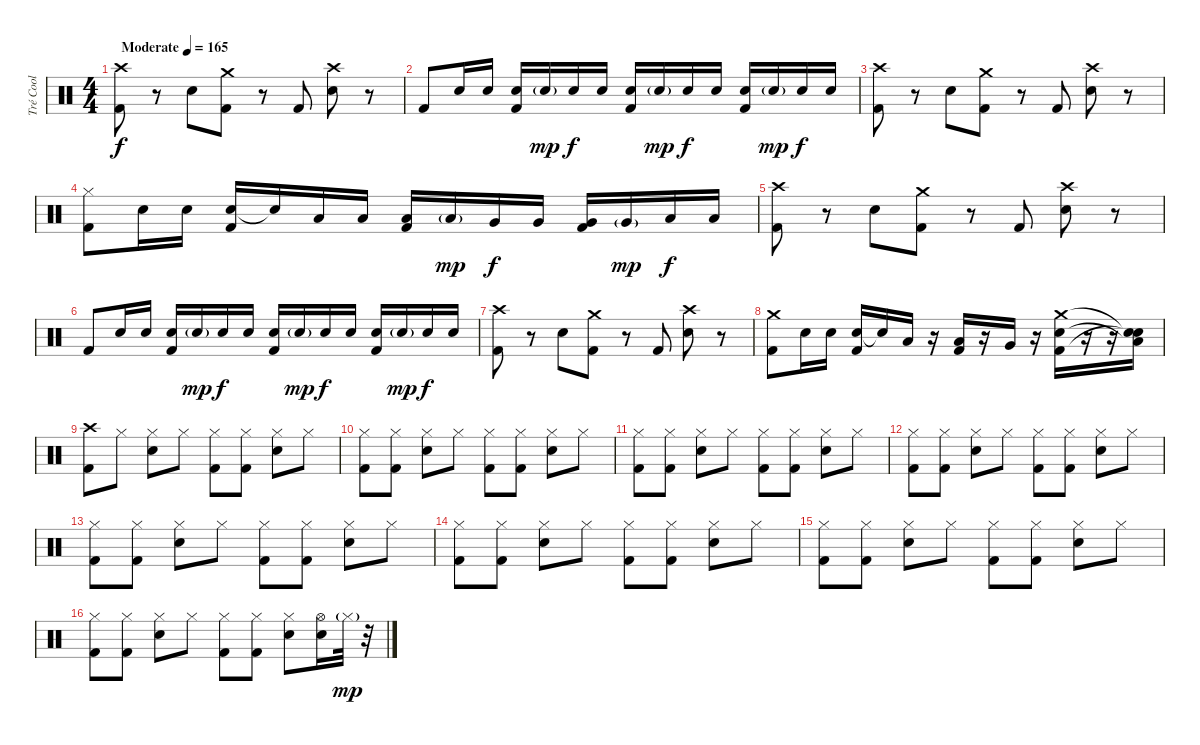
\track ("Tré Cool" "Tré Cool") {instrument percussion}
\staff {score}
\articulation defaults
\ts (4 4)
\tempo (165 "Moderate")
\clef neutral
\ks c
("Crash high (hit)" "Kick (hit) 2").8{dy f} r.8 "Electric Snare (hit)".8 ("Crash medium (hit)" "Kick (hit) 2").8 r.8 "Kick (hit) 2".8 ("Crash high (hit)" "Electric Snare (hit)").8 r.8 |
"Kick (hit) 2".8 "Electric Snare (hit)".16 "Electric Snare (hit)".16 ("Electric Snare (hit)" "Kick (hit) 2").16 "Electric Snare (hit)"{g}.16{dy mp} "Electric Snare (hit)".16{dy f} "Electric Snare (hit)".16 ("Electric Snare (hit)" "Kick (hit) 2").16 "Electric Snare (hit)"{g}.16{dy mp} "Electric Snare (hit)".16{dy f} "Electric Snare (hit)".16 ("Electric Snare (hit)" "Kick (hit) 2").16 "Electric Snare (hit)"{g}.16{dy mp} "Electric Snare (hit)".16{dy f} "Electric Snare (hit)".16 |
("Crash high (hit)" "Kick (hit) 2").8 r.8 "Electric Snare (hit)".8 ("Crash medium (hit)" "Kick (hit) 2").8 r.8 "Kick (hit) 2".8 ("Crash high (hit)" "Electric Snare (hit)").8 r.8 |
("Hi-Hat (closed)" "Kick (hit) 2").8 "Electric Snare (hit)".16 "Electric Snare (hit)".16 ("Electric Snare (hit)" "Kick (hit) 2").16 "Electric Snare (hit)"{t}.16 "Low Tom (hit)".16 "Low Tom (hit)".16 ("Low Tom (hit)" "Kick (hit) 2").16 "Low Tom (hit)"{g}.16{dy mp} "Very Low Tom (hit)".16{dy f} "Very Low Tom (hit)".16 ("Very Low Tom (hit)" "Kick (hit) 2").16 "Very Low Tom (hit)"{g}.16{dy mp} "Low Floor Tom (hit)".16{dy f} "Low Floor Tom (hit)".16 |
("Crash high (hit)" "Kick (hit) 2").8 r.8 "Electric Snare (hit)".8 ("Crash medium (hit)" "Kick (hit) 2").8 r.8 "Kick (hit) 2".8 ("Crash high (hit)" "Electric Snare (hit)").8 r.8 |
"Kick (hit) 2".8 "Electric Snare (hit)".16 "Electric Snare (hit)".16 ("Electric Snare (hit)" "Kick (hit) 2").16 "Electric Snare (hit)"{g}.16{dy mp} "Electric Snare (hit)".16{dy f} "Electric Snare (hit)".16 ("Electric Snare (hit)" "Kick (hit) 2").16 "Electric Snare (hit)"{g}.16{dy mp} "Electric Snare (hit)".16{dy f} "Electric Snare (hit)".16 ("Electric Snare (hit)" "Kick (hit) 2").16 "Electric Snare (hit)"{g}.16{dy mp} "Electric Snare (hit)".16{dy f} "Electric Snare (hit)".16 |
("Crash high (hit)" "Kick (hit) 2").8 r.8 "Electric Snare (hit)".8 ("Crash medium (hit)" "Kick (hit) 2").8 r.8 "Kick (hit) 2".8 ("Crash high (hit)" "Electric Snare (hit)").8 r.8 |
("Crash medium (hit)" "Kick (hit) 2").8 "Electric Snare (hit)".16 "Electric Snare (hit)".16 ("Electric Snare (hit)" "Kick (hit) 2").16 "Electric Snare (hit)"{t}.16 "Low Tom (hit)".16 r.16 ("Low Tom (hit)" "Kick (hit) 2").16 r.16 "Very Low Tom (hit)".16 r.16 ("Crash medium (hit)" "Electric Snare (hit)" "Kick (hit) 2").16 r.16 r.16 ("Snare (hit)"{t} "Low Floor Tom (hit)"{t} "Snare (hit)"{t}).16 |
("Crash high (hit)" "Kick (hit) 2").8 "Hi-Hat (closed)".8 ("Hi-Hat (closed)" "Electric Snare (hit)").8 "Hi-Hat (closed)".8 ("Hi-Hat (closed)" "Kick (hit) 2").8 ("Hi-Hat (closed)" "Kick (hit) 2").8 ("Hi-Hat (closed)" "Electric Snare (hit)").8 "Hi-Hat (closed)".8 |
("Hi-Hat (closed)" "Kick (hit) 2").8 ("Hi-Hat (closed)" "Kick (hit) 2").8 ("Hi-Hat (closed)" "Electric Snare (hit)").8 "Hi-Hat (closed)".8 ("Hi-Hat (closed)" "Kick (hit) 2").8 ("Hi-Hat (closed)" "Kick (hit) 2").8 ("Hi-Hat (closed)" "Electric Snare (hit)").8 "Hi-Hat (closed)".8 |
("Hi-Hat (closed)" "Kick (hit) 2").8 ("Hi-Hat (closed)" "Kick (hit) 2").8 ("Hi-Hat (closed)" "Electric Snare (hit)").8 "Hi-Hat (closed)".8 ("Hi-Hat (closed)" "Kick (hit) 2").8 ("Hi-Hat (closed)" "Kick (hit) 2").8 ("Hi-Hat (closed)" "Electric Snare (hit)").8 "Hi-Hat (closed)".8 |
("Hi-Hat (closed)" "Kick (hit) 2").8 ("Hi-Hat (closed)" "Kick (hit) 2").8 ("Hi-Hat (closed)" "Electric Snare (hit)").8 "Hi-Hat (closed)".8 ("Hi-Hat (closed)" "Kick (hit) 2").8 ("Hi-Hat (closed)" "Kick (hit) 2").8 ("Hi-Hat (closed)" "Electric Snare (hit)").8 "Hi-Hat (closed)".8 |
("Hi-Hat (closed)" "Kick (hit) 2").8 ("Hi-Hat (closed)" "Kick (hit) 2").8 ("Hi-Hat (closed)" "Electric Snare (hit)").8 "Hi-Hat (closed)".8 ("Hi-Hat (closed)" "Kick (hit) 2").8 ("Hi-Hat (closed)" "Kick (hit) 2").8 ("Hi-Hat (closed)" "Electric Snare (hit)").8 "Hi-Hat (closed)".8 |
("Hi-Hat (closed)" "Kick (hit) 2").8 ("Hi-Hat (closed)" "Kick (hit) 2").8 ("Hi-Hat (closed)" "Electric Snare (hit)").8 "Hi-Hat (closed)".8 ("Hi-Hat (closed)" "Kick (hit) 2").8 ("Hi-Hat (closed)" "Kick (hit) 2").8 ("Hi-Hat (closed)" "Electric Snare (hit)").8 "Hi-Hat (closed)".8 |
("Hi-Hat (closed)" "Kick (hit) 2").8 ("Hi-Hat (closed)" "Kick (hit) 2").8 ("Hi-Hat (closed)" "Electric Snare (hit)").8 "Hi-Hat (closed)".8 ("Hi-Hat (closed)" "Kick (hit) 2").8 ("Hi-Hat (closed)" "Kick (hit) 2").8 ("Hi-Hat (closed)" "Electric Snare (hit)").8 "Hi-Hat (closed)".8 |
("Hi-Hat (closed)" "Kick (hit) 2").8 ("Hi-Hat (closed)" "Kick (hit) 2").8 ("Hi-Hat (closed)" "Electric Snare (hit)").8 "Hi-Hat (closed)".8 ("Hi-Hat (closed)" "Kick (hit) 2").8 ("Hi-Hat (closed)" "Kick (hit) 2").8 ("Hi-Hat (closed)" "Electric Snare (hit)").8 ("Hi-Hat (open)" "Electric Snare (hit)").16 "Hi-Hat (closed)"{g}.32{dy mp} r.32
